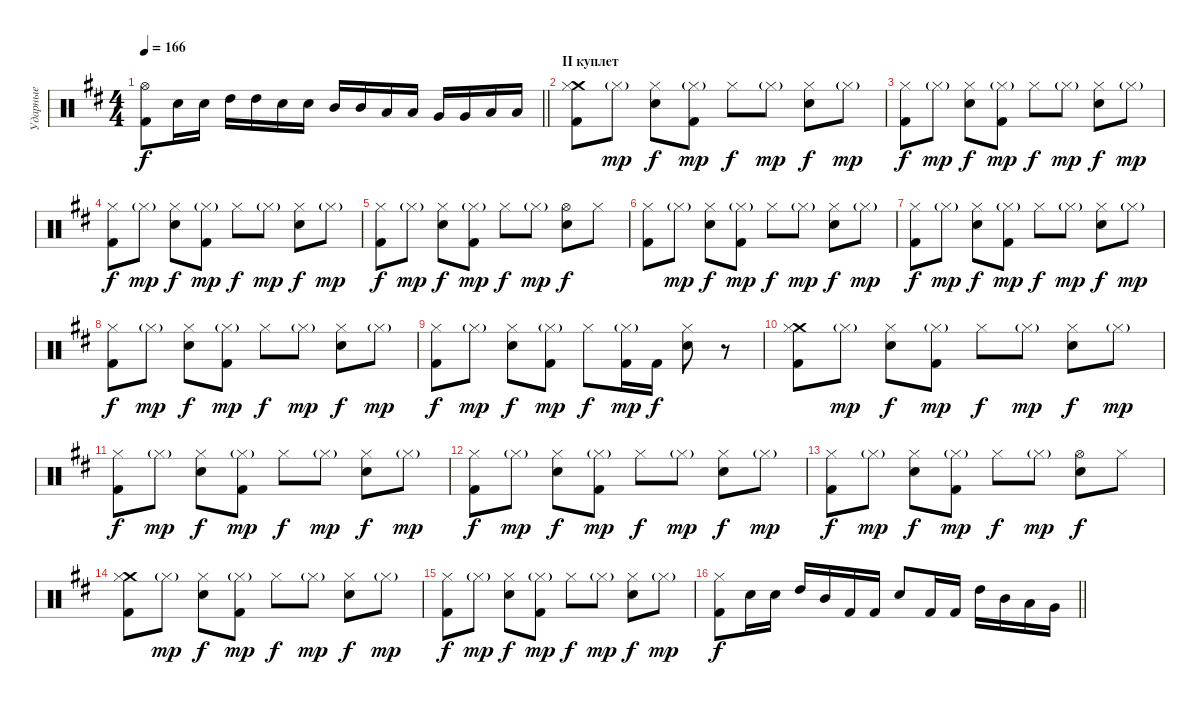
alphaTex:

\track ("Ударные" "Ударные") {instrument percussion}
\staff {score}
\articulation defaults
\ts (4 4)
\tempo 166
\clef neutral
\barLineRight lightlight
\ks bminor
("Kick (hit) 2" "Hi-Hat (open)").8{dy f} "Electric Snare (hit)".16 "Electric Snare (hit)".16 "High Tom (hit)".16 "High Tom (hit)".16 "Electric Snare (hit)".16 "Electric Snare (hit)".16 "Mid Tom (hit)".16 "Mid Tom (hit)".16 "Low Tom (hit)".16 "Low Tom (hit)".16 "Very Low Tom (hit)".16 "Very Low Tom (hit)".16 "Low Floor Tom (hit)".16 "Low Floor Tom (hit)".16 |
\section ("" "II куплет")
("Crash medium (hit)" "Kick (hit) 2" "Hi-Hat (closed)").8 "Hi-Hat (closed)"{g}.8{dy mp} ("Electric Snare (hit)" "Hi-Hat (closed)").8{dy f} ("Kick (hit) 2" "Hi-Hat (closed)"{g}).8{dy mp} "Hi-Hat (closed)".8{dy f} "Hi-Hat (closed)"{g}.8{dy mp} ("Electric Snare (hit)" "Hi-Hat (closed)").8{dy f} "Hi-Hat (closed)"{g}.8{dy mp} |
("Kick (hit) 2" "Hi-Hat (closed)").8{dy f} "Hi-Hat (closed)"{g}.8{dy mp} ("Electric Snare (hit)" "Hi-Hat (closed)").8{dy f} ("Kick (hit) 2" "Hi-Hat (closed)"{g}).8{dy mp} "Hi-Hat (closed)".8{dy f} "Hi-Hat (closed)"{g}.8{dy mp} ("Electric Snare (hit)" "Hi-Hat (closed)").8{dy f} "Hi-Hat (closed)"{g}.8{dy mp} |
("Kick (hit) 2" "Hi-Hat (closed)").8{dy f} "Hi-Hat (closed)"{g}.8{dy mp} ("Electric Snare (hit)" "Hi-Hat (closed)").8{dy f} ("Kick (hit) 2" "Hi-Hat (closed)"{g}).8{dy mp} "Hi-Hat (closed)".8{dy f} "Hi-Hat (closed)"{g}.8{dy mp} ("Electric Snare (hit)" "Hi-Hat (closed)").8{dy f} "Hi-Hat (closed)"{g}.8{dy mp} |
("Kick (hit) 2" "Hi-Hat (closed)").8{dy f} "Hi-Hat (closed)"{g}.8{dy mp} ("Electric Snare (hit)" "Hi-Hat (closed)").8{dy f} ("Kick (hit) 2" "Hi-Hat (closed)"{g}).8{dy mp} "Hi-Hat (closed)".8{dy f} "Hi-Hat (closed)"{g}.8{dy mp} ("Electric Snare (hit)" "Hi-Hat (open)").8{dy f} "Hi-Hat (closed)".8 |
("Kick (hit) 2" "Hi-Hat (closed)").8 "Hi-Hat (closed)"{g}.8{dy mp} ("Electric Snare (hit)" "Hi-Hat (closed)").8{dy f} ("Kick (hit) 2" "Hi-Hat (closed)"{g}).8{dy mp} "Hi-Hat (closed)".8{dy f} "Hi-Hat (closed)"{g}.8{dy mp} ("Electric Snare (hit)" "Hi-Hat (closed)").8{dy f} "Hi-Hat (closed)"{g}.8{dy mp} |
("Kick (hit) 2" "Hi-Hat (closed)").8{dy f} "Hi-Hat (closed)"{g}.8{dy mp} ("Electric Snare (hit)" "Hi-Hat (closed)").8{dy f} ("Kick (hit) 2" "Hi-Hat (closed)"{g}).8{dy mp} "Hi-Hat (closed)".8{dy f} "Hi-Hat (closed)"{g}.8{dy mp} ("Electric Snare (hit)" "Hi-Hat (closed)").8{dy f} "Hi-Hat (closed)"{g}.8{dy mp} |
("Kick (hit) 2" "Hi-Hat (closed)").8{dy f} "Hi-Hat (closed)"{g}.8{dy mp} ("Electric Snare (hit)" "Hi-Hat (closed)").8{dy f} ("Kick (hit) 2" "Hi-Hat (closed)"{g}).8{dy mp} "Hi-Hat (closed)".8{dy f} "Hi-Hat (closed)"{g}.8{dy mp} ("Electric Snare (hit)" "Hi-Hat (closed)").8{dy f} "Hi-Hat (closed)"{g}.8{dy mp} |
("Kick (hit) 2" "Hi-Hat (closed)").8{dy f} "Hi-Hat (closed)"{g}.8{dy mp} ("Electric Snare (hit)" "Hi-Hat (closed)").8{dy f} ("Kick (hit) 2" "Hi-Hat (closed)"{g}).8{dy mp} "Hi-Hat (closed)".8{dy f} ("Kick (hit) 2" "Hi-Hat (closed)"{g}).16{dy mp} "Kick (hit) 2".16{dy f} ("Electric Snare (hit)" "Hi-Hat (closed)").8 r.8 |
("Crash medium (hit)" "Kick (hit) 2" "Hi-Hat (closed)").8 "Hi-Hat (closed)"{g}.8{dy mp} ("Electric Snare (hit)" "Hi-Hat (closed)").8{dy f} ("Kick (hit) 2" "Hi-Hat (closed)"{g}).8{dy mp} "Hi-Hat (closed)".8{dy f} "Hi-Hat (closed)"{g}.8{dy mp} ("Electric Snare (hit)" "Hi-Hat (closed)").8{dy f} "Hi-Hat (closed)"{g}.8{dy mp} |
("Kick (hit) 2" "Hi-Hat (closed)").8{dy f} "Hi-Hat (closed)"{g}.8{dy mp} ("Electric Snare (hit)" "Hi-Hat (closed)").8{dy f} ("Kick (hit) 2" "Hi-Hat (closed)"{g}).8{dy mp} "Hi-Hat (closed)".8{dy f} "Hi-Hat (closed)"{g}.8{dy mp} ("Electric Snare (hit)" "Hi-Hat (closed)").8{dy f} "Hi-Hat (closed)"{g}.8{dy mp} |
("Kick (hit) 2" "Hi-Hat (closed)").8{dy f} "Hi-Hat (closed)"{g}.8{dy mp} ("Electric Snare (hit)" "Hi-Hat (closed)").8{dy f} ("Kick (hit) 2" "Hi-Hat (closed)"{g}).8{dy mp} "Hi-Hat (closed)".8{dy f} "Hi-Hat (closed)"{g}.8{dy mp} ("Electric Snare (hit)" "Hi-Hat (closed)").8{dy f} "Hi-Hat (closed)"{g}.8{dy mp} |
("Kick (hit) 2" "Hi-Hat (closed)").8{dy f} "Hi-Hat (closed)"{g}.8{dy mp} ("Electric Snare (hit)" "Hi-Hat (closed)").8{dy f} ("Kick (hit) 2" "Hi-Hat (closed)"{g}).8{dy mp} "Hi-Hat (closed)".8{dy f} "Hi-Hat (closed)"{g}.8{dy mp} ("Electric Snare (hit)" "Hi-Hat (open)").8{dy f} "Hi-Hat (closed)".8 |
("Crash medium (hit)" "Kick (hit) 2" "Hi-Hat (closed)").8 "Hi-Hat (closed)"{g}.8{dy mp} ("Electric Snare (hit)" "Hi-Hat (closed)").8{dy f} ("Kick (hit) 2" "Hi-Hat (closed)"{g}).8{dy mp} "Hi-Hat (closed)".8{dy f} "Hi-Hat (closed)"{g}.8{dy mp} ("Electric Snare (hit)" "Hi-Hat (closed)").8{dy f} "Hi-Hat (closed)"{g}.8{dy mp} |
("Kick (hit) 2" "Hi-Hat (closed)").8{dy f} "Hi-Hat (closed)"{g}.8{dy mp} ("Electric Snare (hit)" "Hi-Hat (closed)").8{dy f} ("Kick (hit) 2" "Hi-Hat (closed)"{g}).8{dy mp} "Hi-Hat (closed)".8{dy f} "Hi-Hat (closed)"{g}.8{dy mp} ("Electric Snare (hit)" "Hi-Hat (closed)").8{dy f} "Hi-Hat (closed)"{g}.8{dy mp} |
\barLineRight lightlight
("Kick (hit) 2" "Hi-Hat (closed)").8{dy f} "Electric Snare (hit)".16 "Electric Snare (hit)".16 "High Tom (hit)".16 "Mid Tom (hit)".16 "Kick (hit) 2".16 "Kick (hit) 2".16 "Electric Snare (hit)".8 "Kick (hit) 2".16 "Kick (hit) 2".16 "High Tom (hit)".16 "Mid Tom (hit)".16 "Low Tom (hit)".16 "Very Low Tom (hit)".16
